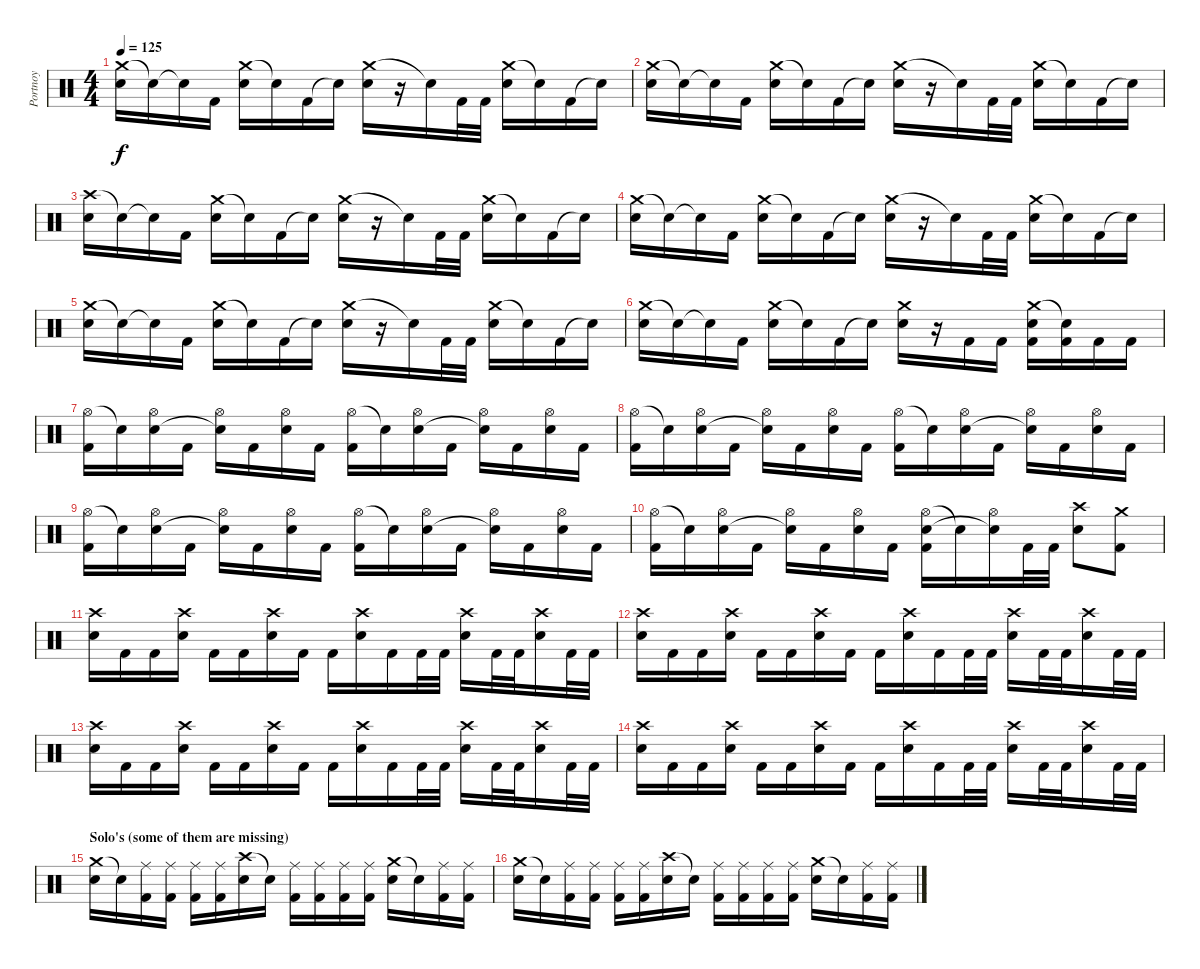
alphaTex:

\track ("Portnoy" "Portnoy") {instrument percussion}
\staff {score}
\articulation defaults
\ts (4 4)
\tempo 125
\clef neutral
\ks c
("Crash medium (hit)" "Snare (hit) 2").16{dy f} "Snare (hit)"{t}.16 "Snare (hit)"{t}.16 "Kick (hit) 2".16 ("Crash medium (hit)" "Snare (hit) 2").16 "Snare (hit)"{t}.16 "Kick (hit) 2".16 "Snare (hit)"{t}.16 ("Crash medium (hit)" "Snare (hit) 2").16 r.16 "Snare (hit)"{t}.16 "Kick (hit) 2".32 "Kick (hit) 2".32 ("Crash medium (hit)" "Snare (hit) 2").16 "Snare (hit)"{t}.16 "Kick (hit) 2".16 "Snare (hit)"{t}.16 |
("Crash medium (hit)" "Snare (hit) 2").16 "Snare (hit)"{t}.16 "Snare (hit)"{t}.16 "Kick (hit) 2".16 ("Crash medium (hit)" "Snare (hit) 2").16 "Snare (hit)"{t}.16 "Kick (hit) 2".16 "Snare (hit)"{t}.16 ("Crash medium (hit)" "Snare (hit) 2").16 r.16 "Snare (hit)"{t}.16 "Kick (hit) 2".32 "Kick (hit) 2".32 ("Crash medium (hit)" "Snare (hit) 2").16 "Snare (hit)"{t}.16 "Kick (hit) 2".16 "Snare (hit)"{t}.16 |
("Crash high (hit)" "Snare (hit) 2").16 "Snare (hit)"{t}.16 "Snare (hit)"{t}.16 "Kick (hit) 2".16 ("Crash medium (hit)" "Snare (hit) 2").16 "Snare (hit)"{t}.16 "Kick (hit) 2".16 "Snare (hit)"{t}.16 ("Crash medium (hit)" "Snare (hit) 2").16 r.16 "Snare (hit)"{t}.16 "Kick (hit) 2".32 "Kick (hit) 2".32 ("Crash medium (hit)" "Snare (hit) 2").16 "Snare (hit)"{t}.16 "Kick (hit) 2".16 "Snare (hit)"{t}.16 |
("Crash medium (hit)" "Snare (hit) 2").16 "Snare (hit)"{t}.16 "Snare (hit)"{t}.16 "Kick (hit) 2".16 ("Crash medium (hit)" "Snare (hit) 2").16 "Snare (hit)"{t}.16 "Kick (hit) 2".16 "Snare (hit)"{t}.16 ("Crash medium (hit)" "Snare (hit) 2").16 r.16 "Snare (hit)"{t}.16 "Kick (hit) 2".32 "Kick (hit) 2".32 ("Crash medium (hit)" "Snare (hit) 2").16 "Snare (hit)"{t}.16 "Kick (hit) 2".16 "Snare (hit)"{t}.16 |
("Crash medium (hit)" "Snare (hit) 2").16 "Snare (hit)"{t}.16 "Snare (hit)"{t}.16 "Kick (hit) 2".16 ("Crash medium (hit)" "Snare (hit) 2").16 "Snare (hit)"{t}.16 "Kick (hit) 2".16 "Snare (hit)"{t}.16 ("Crash medium (hit)" "Snare (hit) 2").16 r.16 "Snare (hit)"{t}.16 "Kick (hit) 2".32 "Kick (hit) 2".32 ("Crash medium (hit)" "Snare (hit) 2").16 "Snare (hit)"{t}.16 "Kick (hit) 2".16 "Snare (hit)"{t}.16 |
("Crash medium (hit)" "Snare (hit) 2").16 "Snare (hit)"{t}.16 "Snare (hit)"{t}.16 "Kick (hit) 2".16 ("Crash medium (hit)" "Snare (hit) 2").16 "Snare (hit)"{t}.16 "Kick (hit) 2".16 "Snare (hit)"{t}.16 ("Crash medium (hit)" "Snare (hit) 2").16 r.16 "Kick (hit) 2".16 "Kick (hit) 2".16 ("Crash medium (hit)" "Snare (hit) 2" "Kick (hit) 2").16 ("Snare (hit)"{t} "Kick (hit) 2").16 "Kick (hit) 2".16 "Kick (hit) 2".16 |
("Hi-Hat (open)" "Kick (hit) 2").16 "Snare (hit)"{t}.16 ("Hi-Hat (open)" "Snare (hit) 2").16 "Kick (hit) 2".16 ("Hi-Hat (open)" "Snare (hit)"{t}).16 "Kick (hit) 2".16 ("Hi-Hat (open)" "Snare (hit) 2").16 "Kick (hit) 2".16 ("Hi-Hat (open)" "Kick (hit) 2").16 "Snare (hit)"{t}.16 ("Hi-Hat (open)" "Snare (hit) 2").16 "Kick (hit) 2".16 ("Hi-Hat (open)" "Snare (hit)"{t}).16 "Kick (hit) 2".16 ("Hi-Hat (open)" "Snare (hit) 2").16 "Kick (hit) 2".16 |
("Hi-Hat (open)" "Kick (hit) 2").16 "Snare (hit)"{t}.16 ("Hi-Hat (open)" "Snare (hit) 2").16 "Kick (hit) 2".16 ("Hi-Hat (open)" "Snare (hit)"{t}).16 "Kick (hit) 2".16 ("Hi-Hat (open)" "Snare (hit) 2").16 "Kick (hit) 2".16 ("Hi-Hat (open)" "Kick (hit) 2").16 "Snare (hit)"{t}.16 ("Hi-Hat (open)" "Snare (hit) 2").16 "Kick (hit) 2".16 ("Hi-Hat (open)" "Snare (hit)"{t}).16 "Kick (hit) 2".16 ("Hi-Hat (open)" "Snare (hit) 2").16 "Kick (hit) 2".16 |
("Hi-Hat (open)" "Kick (hit) 2").16 "Snare (hit)"{t}.16 ("Hi-Hat (open)" "Snare (hit) 2").16 "Kick (hit) 2".16 ("Hi-Hat (open)" "Snare (hit)"{t}).16 "Kick (hit) 2".16 ("Hi-Hat (open)" "Snare (hit) 2").16 "Kick (hit) 2".16 ("Hi-Hat (open)" "Kick (hit) 2").16 "Snare (hit)"{t}.16 ("Hi-Hat (open)" "Snare (hit) 2").16 "Kick (hit) 2".16 ("Hi-Hat (open)" "Snare (hit)"{t}).16 "Kick (hit) 2".16 ("Hi-Hat (open)" "Snare (hit) 2").16 "Kick (hit) 2".16 |
("Hi-Hat (open)" "Kick (hit) 2").16 "Snare (hit)"{t}.16 ("Hi-Hat (open)" "Snare (hit) 2").16 "Kick (hit) 2".16 ("Hi-Hat (open)" "Snare (hit)"{t}).16 "Kick (hit) 2".16 ("Hi-Hat (open)" "Snare (hit) 2").16 "Kick (hit) 2".16 ("Hi-Hat (open)" "Snare (hit) 2" "Kick (hit) 2").16 "Snare (hit)"{t}.16 ("Hi-Hat (open)" "Snare (hit)"{t}).16 "Kick (hit) 2".32 "Kick (hit) 2".32 ("Crash high (hit)" "Snare (hit) 2").8 ("Crash medium (hit)" "Kick (hit) 2").8 |
("Crash high (hit)" "Snare (hit) 2").16 "Kick (hit) 2".16 "Kick (hit) 2".16 ("Crash high (hit)" "Snare (hit) 2").16 "Kick (hit) 2".16 "Kick (hit) 2".16 ("Crash high (hit)" "Snare (hit) 2").16 "Kick (hit) 2".16 "Kick (hit) 2".16 ("Crash high (hit)" "Snare (hit) 2").16 "Kick (hit) 2".16 "Kick (hit) 2".32 "Kick (hit) 2".32 ("Crash high (hit)" "Snare (hit) 2").16 "Kick (hit) 2".32 "Kick (hit) 2".32 ("Crash high (hit)" "Snare (hit) 2").16 "Kick (hit) 2".32 "Kick (hit) 2".32 |
("Crash high (hit)" "Snare (hit) 2").16 "Kick (hit) 2".16 "Kick (hit) 2".16 ("Crash high (hit)" "Snare (hit) 2").16 "Kick (hit) 2".16 "Kick (hit) 2".16 ("Crash high (hit)" "Snare (hit) 2").16 "Kick (hit) 2".16 "Kick (hit) 2".16 ("Crash high (hit)" "Snare (hit) 2").16 "Kick (hit) 2".16 "Kick (hit) 2".32 "Kick (hit) 2".32 ("Crash high (hit)" "Snare (hit) 2").16 "Kick (hit) 2".32 "Kick (hit) 2".32 ("Crash high (hit)" "Snare (hit) 2").16 "Kick (hit) 2".32 "Kick (hit) 2".32 |
("Crash high (hit)" "Snare (hit) 2").16 "Kick (hit) 2".16 "Kick (hit) 2".16 ("Crash high (hit)" "Snare (hit) 2").16 "Kick (hit) 2".16 "Kick (hit) 2".16 ("Crash high (hit)" "Snare (hit) 2").16 "Kick (hit) 2".16 "Kick (hit) 2".16 ("Crash high (hit)" "Snare (hit) 2").16 "Kick (hit) 2".16 "Kick (hit) 2".32 "Kick (hit) 2".32 ("Crash high (hit)" "Snare (hit) 2").16 "Kick (hit) 2".32 "Kick (hit) 2".32 ("Crash high (hit)" "Snare (hit) 2").16 "Kick (hit) 2".32 "Kick (hit) 2".32 |
("Crash high (hit)" "Snare (hit) 2").16 "Kick (hit) 2".16 "Kick (hit) 2".16 ("Crash high (hit)" "Snare (hit) 2").16 "Kick (hit) 2".16 "Kick (hit) 2".16 ("Crash high (hit)" "Snare (hit) 2").16 "Kick (hit) 2".16 "Kick (hit) 2".16 ("Crash high (hit)" "Snare (hit) 2").16 "Kick (hit) 2".16 "Kick (hit) 2".32 "Kick (hit) 2".32 ("Crash high (hit)" "Snare (hit) 2").16 "Kick (hit) 2".32 "Kick (hit) 2".32 ("Crash high (hit)" "Snare (hit) 2").16 "Kick (hit) 2".32 "Kick (hit) 2".32 |
\section ("" "Solo's (some of them are missing)")
("Crash medium (hit)" "Snare (hit) 2").16 "Snare (hit)"{t}.16 ("Ride (middle)" "Kick (hit) 2").16 ("Ride (middle)" "Kick (hit) 2").16 ("Ride (middle)" "Kick (hit) 2").16 ("Ride (middle)" "Kick (hit) 2").16 ("Crash high (hit)" "Snare (hit) 2").16 "Snare (hit)"{t}.16 ("Ride (middle)" "Kick (hit) 2").16 ("Ride (middle)" "Kick (hit) 2").16 ("Ride (middle)" "Kick (hit) 2").16 ("Ride (middle)" "Kick (hit) 2").16 ("Crash medium (hit)" "Snare (hit) 2").16 "Snare (hit)"{t}.16 ("Ride (middle)" "Kick (hit) 2").16 ("Ride (middle)" "Kick (hit) 2").16 |
("Crash medium (hit)" "Snare (hit) 2").16 "Snare (hit)"{t}.16 ("Ride (middle)" "Kick (hit) 2").16 ("Ride (middle)" "Kick (hit) 2").16 ("Ride (middle)" "Kick (hit) 2").16 ("Ride (middle)" "Kick (hit) 2").16 ("Crash high (hit)" "Snare (hit) 2").16 "Snare (hit)"{t}.16 ("Ride (middle)" "Kick (hit) 2").16 ("Ride (middle)" "Kick (hit) 2").16 ("Ride (middle)" "Kick (hit) 2").16 ("Ride (middle)" "Kick (hit) 2").16 ("Crash medium (hit)" "Snare (hit) 2").16 "Snare (hit)"{t}.16 ("Ride (middle)" "Kick (hit) 2").16 ("Ride (middle)" "Kick (hit) 2").16
